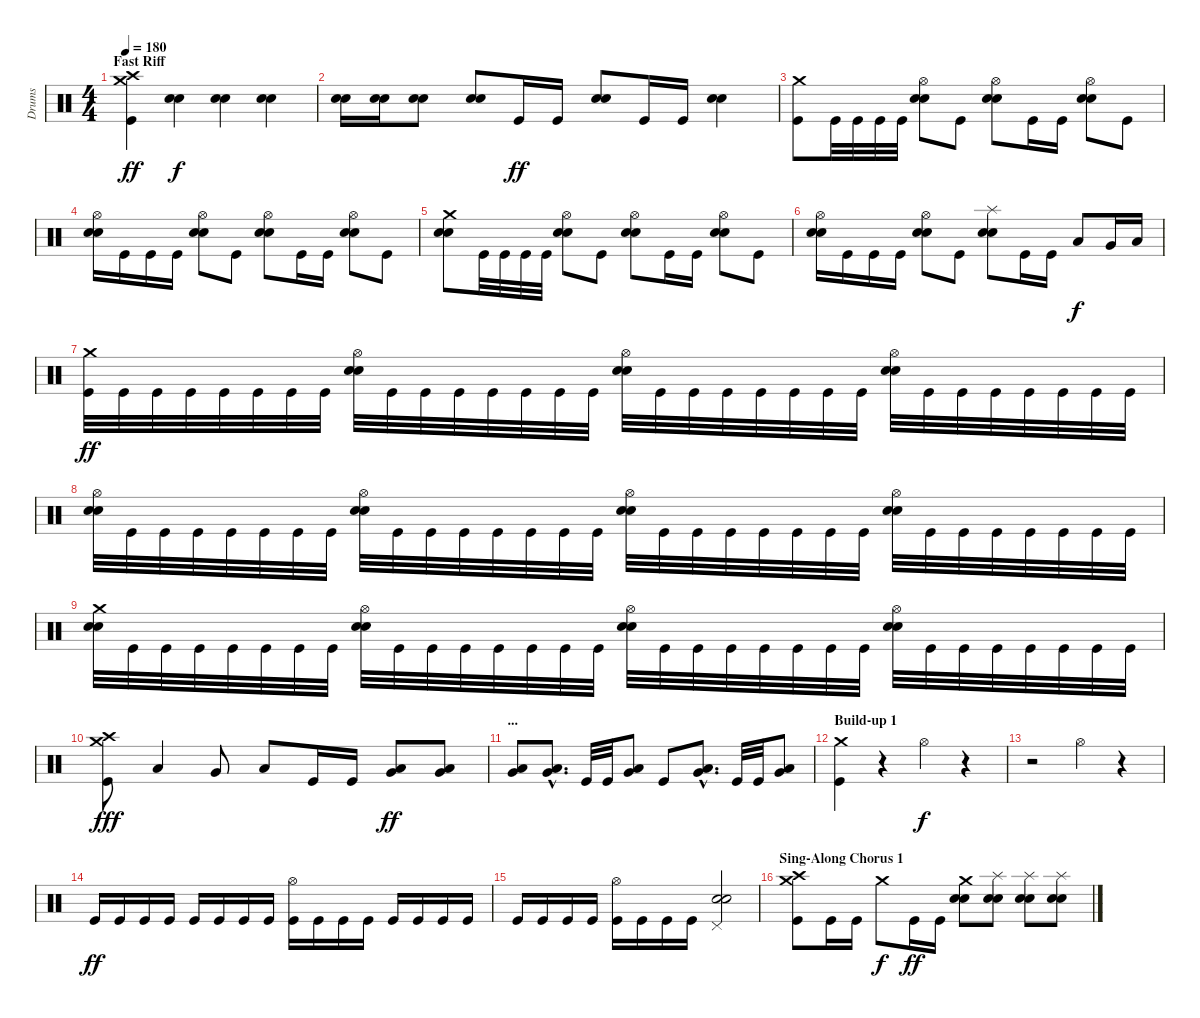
\track ("Drums" "Drums") {instrument percussion}
\staff {score}
\articulation defaults
\ts (4 4)
\section ("" "Fast Riff")
\tempo 180
\clef neutral
\ks c
("Kick (hit)" "Crash high (hit)" "Crash medium (hit)").4{dy ff} ("Electric Snare (hit)" "Electric Snare (hit)").4{dy f} ("Electric Snare (hit)" "Electric Snare (hit)").4 ("Electric Snare (hit)" "Electric Snare (hit)").4 |
("Electric Snare (hit)" "Electric Snare (hit)").16 ("Electric Snare (hit)" "Electric Snare (hit)").16 ("Electric Snare (hit)" "Electric Snare (hit)").8 ("Electric Snare (hit)" "Electric Snare (hit)").8 "Kick (hit)".16{dy ff} "Kick (hit)".16 ("Electric Snare (hit)" "Electric Snare (hit)").8 "Kick (hit)".16 "Kick (hit)".16 ("Electric Snare (hit)" "Electric Snare (hit)").4 |
("Kick (hit)" "Crash medium (hit)").8 "Kick (hit)".32 "Kick (hit)".32 "Kick (hit)".32 "Kick (hit)".32 ("Electric Snare (hit)" "Electric Snare (hit)" "Hi-Hat (open)").8 "Kick (hit)".8 ("Electric Snare (hit)" "Electric Snare (hit)" "Hi-Hat (open)").8 "Kick (hit)".16 "Kick (hit)".16 ("Electric Snare (hit)" "Electric Snare (hit)" "Hi-Hat (open)").8 "Kick (hit)".8 |
("Electric Snare (hit)" "Electric Snare (hit)" "Hi-Hat (open)").16 "Kick (hit)".16 "Kick (hit)".16 "Kick (hit)".16 ("Electric Snare (hit)" "Electric Snare (hit)" "Hi-Hat (open)").8 "Kick (hit)".8 ("Electric Snare (hit)" "Electric Snare (hit)" "Hi-Hat (open)").8 "Kick (hit)".16 "Kick (hit)".16 ("Electric Snare (hit)" "Electric Snare (hit)" "Hi-Hat (open)").8 "Kick (hit)".8 |
("Electric Snare (hit)" "Electric Snare (hit)" "Crash medium (hit)").8 "Kick (hit)".32 "Kick (hit)".32 "Kick (hit)".32 "Kick (hit)".32 ("Electric Snare (hit)" "Electric Snare (hit)" "Hi-Hat (open)").8 "Kick (hit)".8 ("Electric Snare (hit)" "Electric Snare (hit)" "Hi-Hat (open)").8 "Kick (hit)".16 "Kick (hit)".16 ("Electric Snare (hit)" "Electric Snare (hit)" "Hi-Hat (open)").8 "Kick (hit)".8 |
("Electric Snare (hit)" "Electric Snare (hit)" "Hi-Hat (open)").16 "Kick (hit)".16 "Kick (hit)".16 "Kick (hit)".16 ("Electric Snare (hit)" "Electric Snare (hit)" "Hi-Hat (open)").8 "Kick (hit)".8 ("Electric Snare (hit)" "Electric Snare (hit)" "Splash (hit)").8 "Kick (hit)".16 "Kick (hit)".16 "Low Tom (hit)".8{dy f} "Very Low Tom (hit)".16 "Low Floor Tom (hit)".16 |
("Kick (hit)" "Crash medium (hit)").32{dy ff} "Kick (hit)".32 "Kick (hit)".32 "Kick (hit)".32 "Kick (hit)".32 "Kick (hit)".32 "Kick (hit)".32 "Kick (hit)".32 ("Electric Snare (hit)" "Electric Snare (hit)" "Hi-Hat (open)").32 "Kick (hit)".32 "Kick (hit)".32 "Kick (hit)".32 "Kick (hit)".32 "Kick (hit)".32 "Kick (hit)".32 "Kick (hit)".32 ("Electric Snare (hit)" "Electric Snare (hit)" "Hi-Hat (open)").32 "Kick (hit)".32 "Kick (hit)".32 "Kick (hit)".32 "Kick (hit)".32 "Kick (hit)".32 "Kick (hit)".32 "Kick (hit)".32 ("Electric Snare (hit)" "Electric Snare (hit)" "Hi-Hat (open)").32 "Kick (hit)".32 "Kick (hit)".32 "Kick (hit)".32 "Kick (hit)".32 "Kick (hit)".32 "Kick (hit)".32 "Kick (hit)".32 |
("Electric Snare (hit)" "Electric Snare (hit)" "Hi-Hat (open)").32 "Kick (hit)".32 "Kick (hit)".32 "Kick (hit)".32 "Kick (hit)".32 "Kick (hit)".32 "Kick (hit)".32 "Kick (hit)".32 ("Electric Snare (hit)" "Electric Snare (hit)" "Hi-Hat (open)").32 "Kick (hit)".32 "Kick (hit)".32 "Kick (hit)".32 "Kick (hit)".32 "Kick (hit)".32 "Kick (hit)".32 "Kick (hit)".32 ("Electric Snare (hit)" "Electric Snare (hit)" "Hi-Hat (open)").32 "Kick (hit)".32 "Kick (hit)".32 "Kick (hit)".32 "Kick (hit)".32 "Kick (hit)".32 "Kick (hit)".32 "Kick (hit)".32 ("Electric Snare (hit)" "Electric Snare (hit)" "Hi-Hat (open)").32 "Kick (hit)".32 "Kick (hit)".32 "Kick (hit)".32 "Kick (hit)".32 "Kick (hit)".32 "Kick (hit)".32 "Kick (hit)".32 |
("Electric Snare (hit)" "Electric Snare (hit)" "Crash medium (hit)").32 "Kick (hit)".32 "Kick (hit)".32 "Kick (hit)".32 "Kick (hit)".32 "Kick (hit)".32 "Kick (hit)".32 "Kick (hit)".32 ("Electric Snare (hit)" "Electric Snare (hit)" "Hi-Hat (open)").32 "Kick (hit)".32 "Kick (hit)".32 "Kick (hit)".32 "Kick (hit)".32 "Kick (hit)".32 "Kick (hit)".32 "Kick (hit)".32 ("Electric Snare (hit)" "Electric Snare (hit)" "Hi-Hat (open)").32 "Kick (hit)".32 "Kick (hit)".32 "Kick (hit)".32 "Kick (hit)".32 "Kick (hit)".32 "Kick (hit)".32 "Kick (hit)".32 ("Electric Snare (hit)" "Electric Snare (hit)" "Hi-Hat (open)").32 "Kick (hit)".32 "Kick (hit)".32 "Kick (hit)".32 "Kick (hit)".32 "Kick (hit)".32 "Kick (hit)".32 "Kick (hit)".32 |
("Kick (hit)" "Crash high (hit)" "Crash medium (hit)").8{dy fff} "Low Tom (hit)".4 "Very Low Tom (hit)".8 "Low Floor Tom (hit)".8 "Kick (hit)".16 "Kick (hit)".16 ("Very Low Tom (hit)" "Low Tom (hit)").8{dy ff} ("Very Low Tom (hit)" "Low Tom (hit)").8 |
\section ("" "...")
("Very Low Tom (hit)" "Low Tom (hit)").8 ("Very Low Tom (hit)"{hac} "Low Tom (hit)"{hac}).8{d} "Kick (hit)".32 "Kick (hit)".32 ("Low Floor Tom (hit)" "Very Low Tom (hit)").8 "Kick (hit)".8 ("Very Low Tom (hit)"{hac} "Low Tom (hit)"{hac}).8{d} "Kick (hit)".32 "Kick (hit)".32 ("Low Floor Tom (hit)" "Very Low Tom (hit)").8 |
\section ("" "Build-up 1")
("Kick (hit)" "Crash medium (hit)").4 r.4 "Hi-Hat (open)".4{dy f} r.4 |
r.2 "Hi-Hat (open)".4 r.4 |
"Kick (hit)".16{dy ff} "Kick (hit)".16 "Kick (hit)".16 "Kick (hit)".16 "Kick (hit)".16 "Kick (hit)".16 "Kick (hit)".16 "Kick (hit)".16 ("Kick (hit)" "Hi-Hat (open)").16 "Kick (hit)".16 "Kick (hit)".16 "Kick (hit)".16 "Kick (hit)".16 "Kick (hit)".16 "Kick (hit)".16 "Kick (hit)".16 |
"Kick (hit)".16 "Kick (hit)".16 "Kick (hit)".16 "Kick (hit)".16 ("Kick (hit)" "Hi-Hat (open)").16 "Kick (hit)".16 "Kick (hit)".16 "Kick (hit)".16 ("Electric Snare (hit)" "Electric Snare (hit)" "Pedal Hi-Hat (hit)").2 |
\section ("" "Sing-Along Chorus 1")
("Kick (hit)" "Crash high (hit)" "Crash medium (hit)").8 "Kick (hit)".16 "Kick (hit)".16 "Crash medium (hit)".8{dy f} "Kick (hit)".16{dy ff} "Kick (hit)".16 ("Electric Snare (hit)" "Electric Snare (hit)" "Crash medium (hit)").8 ("Electric Snare (hit)" "Electric Snare (hit)" "Splash (hit)").8 ("Electric Snare (hit)" "Electric Snare (hit)" "Splash (hit)").8 ("Electric Snare (hit)" "Electric Snare (hit)" "Splash (hit)").8
